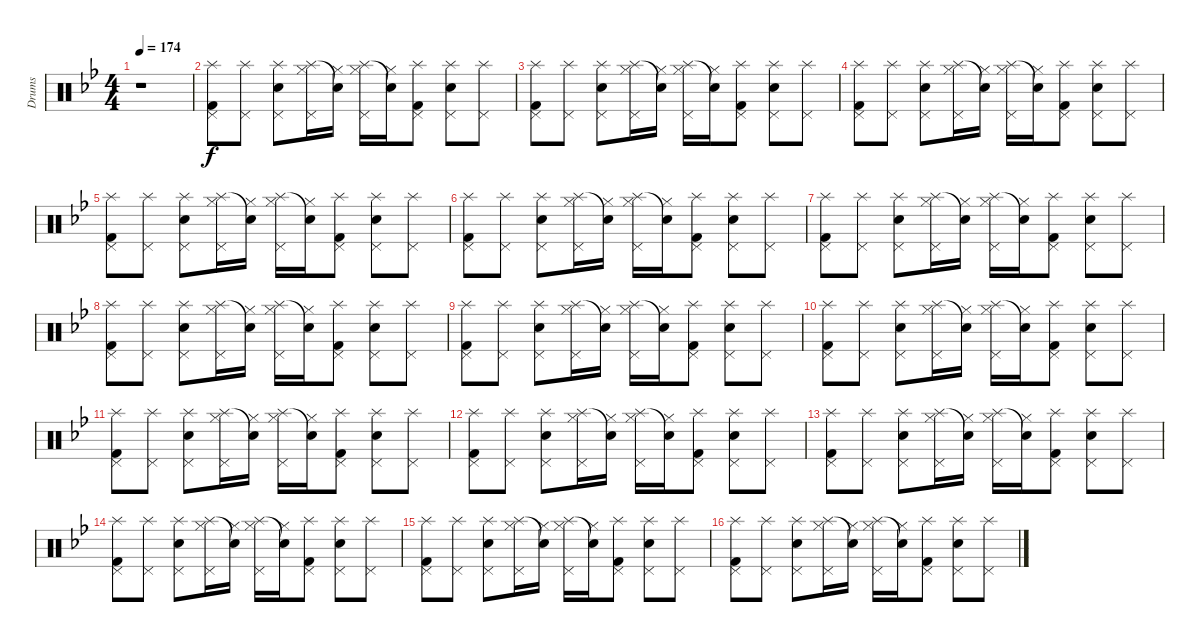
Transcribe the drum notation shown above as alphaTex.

\track ("Drums" "Drums") {instrument percussion}
\staff {score}
\articulation defaults
\ts (4 4)
\tempo 174
\clef neutral
\ks gminor
r.1{dy fff} |
("Splash (hit)" "Pedal Hi-Hat (hit)" "Kick (hit) 2").8{dy f} ("Splash (hit)" "Pedal Hi-Hat (hit)").8 ("Splash (hit)" "Pedal Hi-Hat (hit)" "Snare (hit) 2").8 ("Splash (hit)" "Pedal Hi-Hat (hit)" "Hi-Hat (closed)").16 ("Snare (hit)"{t} "Hi-Hat (closed)").16 ("Splash (hit)" "Pedal Hi-Hat (hit)" "Hi-Hat (closed)").16 ("Snare (hit)"{t} "Hi-Hat (closed)").16 ("Splash (hit)" "Pedal Hi-Hat (hit)" "Kick (hit) 2").8 ("Splash (hit)" "Pedal Hi-Hat (hit)" "Snare (hit) 2").8 ("Splash (hit)" "Pedal Hi-Hat (hit)").8 |
("Splash (hit)" "Pedal Hi-Hat (hit)" "Kick (hit) 2").8 ("Splash (hit)" "Pedal Hi-Hat (hit)").8 ("Splash (hit)" "Pedal Hi-Hat (hit)" "Snare (hit) 2").8 ("Splash (hit)" "Pedal Hi-Hat (hit)" "Hi-Hat (closed)").16 ("Snare (hit)"{t} "Hi-Hat (closed)").16 ("Splash (hit)" "Pedal Hi-Hat (hit)" "Hi-Hat (closed)").16 ("Snare (hit)"{t} "Hi-Hat (closed)").16 ("Splash (hit)" "Pedal Hi-Hat (hit)" "Kick (hit) 2").8 ("Splash (hit)" "Pedal Hi-Hat (hit)" "Snare (hit) 2").8 ("Splash (hit)" "Pedal Hi-Hat (hit)").8 |
("Splash (hit)" "Pedal Hi-Hat (hit)" "Kick (hit) 2").8 ("Splash (hit)" "Pedal Hi-Hat (hit)").8 ("Splash (hit)" "Pedal Hi-Hat (hit)" "Snare (hit) 2").8 ("Splash (hit)" "Pedal Hi-Hat (hit)" "Hi-Hat (closed)").16 ("Snare (hit)"{t} "Hi-Hat (closed)").16 ("Splash (hit)" "Pedal Hi-Hat (hit)" "Hi-Hat (closed)").16 ("Snare (hit)"{t} "Hi-Hat (closed)").16 ("Splash (hit)" "Pedal Hi-Hat (hit)" "Kick (hit) 2").8 ("Splash (hit)" "Pedal Hi-Hat (hit)" "Snare (hit) 2").8 ("Splash (hit)" "Pedal Hi-Hat (hit)").8 |
("Splash (hit)" "Pedal Hi-Hat (hit)" "Kick (hit) 2").8 ("Splash (hit)" "Pedal Hi-Hat (hit)").8 ("Splash (hit)" "Pedal Hi-Hat (hit)" "Snare (hit) 2").8 ("Splash (hit)" "Pedal Hi-Hat (hit)" "Hi-Hat (closed)").16 ("Snare (hit)"{t} "Hi-Hat (closed)").16 ("Splash (hit)" "Pedal Hi-Hat (hit)" "Hi-Hat (closed)").16 ("Snare (hit)"{t} "Hi-Hat (closed)").16 ("Splash (hit)" "Pedal Hi-Hat (hit)" "Kick (hit) 2").8 ("Splash (hit)" "Pedal Hi-Hat (hit)" "Snare (hit) 2").8 ("Splash (hit)" "Pedal Hi-Hat (hit)").8 |
("Splash (hit)" "Pedal Hi-Hat (hit)" "Kick (hit) 2").8 ("Splash (hit)" "Pedal Hi-Hat (hit)").8 ("Splash (hit)" "Pedal Hi-Hat (hit)" "Snare (hit) 2").8 ("Splash (hit)" "Pedal Hi-Hat (hit)" "Hi-Hat (closed)").16 ("Snare (hit)"{t} "Hi-Hat (closed)").16 ("Splash (hit)" "Pedal Hi-Hat (hit)" "Hi-Hat (closed)").16 ("Snare (hit)"{t} "Hi-Hat (closed)").16 ("Splash (hit)" "Pedal Hi-Hat (hit)" "Kick (hit) 2").8 ("Splash (hit)" "Pedal Hi-Hat (hit)" "Snare (hit) 2").8 ("Splash (hit)" "Pedal Hi-Hat (hit)").8 |
("Splash (hit)" "Pedal Hi-Hat (hit)" "Kick (hit) 2").8 ("Splash (hit)" "Pedal Hi-Hat (hit)").8 ("Splash (hit)" "Pedal Hi-Hat (hit)" "Snare (hit) 2").8 ("Splash (hit)" "Pedal Hi-Hat (hit)" "Hi-Hat (closed)").16 ("Snare (hit)"{t} "Hi-Hat (closed)").16 ("Splash (hit)" "Pedal Hi-Hat (hit)" "Hi-Hat (closed)").16 ("Snare (hit)"{t} "Hi-Hat (closed)").16 ("Splash (hit)" "Pedal Hi-Hat (hit)" "Kick (hit) 2").8 ("Splash (hit)" "Pedal Hi-Hat (hit)" "Snare (hit) 2").8 ("Splash (hit)" "Pedal Hi-Hat (hit)").8 |
("Splash (hit)" "Pedal Hi-Hat (hit)" "Kick (hit) 2").8 ("Splash (hit)" "Pedal Hi-Hat (hit)").8 ("Splash (hit)" "Pedal Hi-Hat (hit)" "Snare (hit) 2").8 ("Splash (hit)" "Pedal Hi-Hat (hit)" "Hi-Hat (closed)").16 ("Snare (hit)"{t} "Hi-Hat (closed)").16 ("Splash (hit)" "Pedal Hi-Hat (hit)" "Hi-Hat (closed)").16 ("Snare (hit)"{t} "Hi-Hat (closed)").16 ("Splash (hit)" "Pedal Hi-Hat (hit)" "Kick (hit) 2").8 ("Splash (hit)" "Pedal Hi-Hat (hit)" "Snare (hit) 2").8 ("Splash (hit)" "Pedal Hi-Hat (hit)").8 |
("Splash (hit)" "Pedal Hi-Hat (hit)" "Kick (hit) 2").8 ("Splash (hit)" "Pedal Hi-Hat (hit)").8 ("Splash (hit)" "Pedal Hi-Hat (hit)" "Snare (hit) 2").8 ("Splash (hit)" "Pedal Hi-Hat (hit)" "Hi-Hat (closed)").16 ("Snare (hit)"{t} "Hi-Hat (closed)").16 ("Splash (hit)" "Pedal Hi-Hat (hit)" "Hi-Hat (closed)").16 ("Snare (hit)"{t} "Hi-Hat (closed)").16 ("Splash (hit)" "Pedal Hi-Hat (hit)" "Kick (hit) 2").8 ("Splash (hit)" "Pedal Hi-Hat (hit)" "Snare (hit) 2").8 ("Splash (hit)" "Pedal Hi-Hat (hit)").8 |
("Splash (hit)" "Pedal Hi-Hat (hit)" "Kick (hit) 2").8 ("Splash (hit)" "Pedal Hi-Hat (hit)").8 ("Splash (hit)" "Pedal Hi-Hat (hit)" "Snare (hit) 2").8 ("Splash (hit)" "Pedal Hi-Hat (hit)" "Hi-Hat (closed)").16 ("Snare (hit)"{t} "Hi-Hat (closed)").16 ("Splash (hit)" "Pedal Hi-Hat (hit)" "Hi-Hat (closed)").16 ("Snare (hit)"{t} "Hi-Hat (closed)").16 ("Splash (hit)" "Pedal Hi-Hat (hit)" "Kick (hit) 2").8 ("Splash (hit)" "Pedal Hi-Hat (hit)" "Snare (hit) 2").8 ("Splash (hit)" "Pedal Hi-Hat (hit)").8 |
("Splash (hit)" "Pedal Hi-Hat (hit)" "Kick (hit) 2").8 ("Splash (hit)" "Pedal Hi-Hat (hit)").8 ("Splash (hit)" "Pedal Hi-Hat (hit)" "Snare (hit) 2").8 ("Splash (hit)" "Pedal Hi-Hat (hit)" "Hi-Hat (closed)").16 ("Snare (hit)"{t} "Hi-Hat (closed)").16 ("Splash (hit)" "Pedal Hi-Hat (hit)" "Hi-Hat (closed)").16 ("Snare (hit)"{t} "Hi-Hat (closed)").16 ("Splash (hit)" "Pedal Hi-Hat (hit)" "Kick (hit) 2").8 ("Splash (hit)" "Pedal Hi-Hat (hit)" "Snare (hit) 2").8 ("Splash (hit)" "Pedal Hi-Hat (hit)").8 |
("Splash (hit)" "Pedal Hi-Hat (hit)" "Kick (hit) 2").8 ("Splash (hit)" "Pedal Hi-Hat (hit)").8 ("Splash (hit)" "Pedal Hi-Hat (hit)" "Snare (hit) 2").8 ("Splash (hit)" "Pedal Hi-Hat (hit)" "Hi-Hat (closed)").16 ("Snare (hit)"{t} "Hi-Hat (closed)").16 ("Splash (hit)" "Pedal Hi-Hat (hit)" "Hi-Hat (closed)").16 ("Snare (hit)"{t} "Hi-Hat (closed)").16 ("Splash (hit)" "Pedal Hi-Hat (hit)" "Kick (hit) 2").8 ("Splash (hit)" "Pedal Hi-Hat (hit)" "Snare (hit) 2").8 ("Splash (hit)" "Pedal Hi-Hat (hit)").8 |
("Splash (hit)" "Pedal Hi-Hat (hit)" "Kick (hit) 2").8 ("Splash (hit)" "Pedal Hi-Hat (hit)").8 ("Splash (hit)" "Pedal Hi-Hat (hit)" "Snare (hit) 2").8 ("Splash (hit)" "Pedal Hi-Hat (hit)" "Hi-Hat (closed)").16 ("Snare (hit)"{t} "Hi-Hat (closed)").16 ("Splash (hit)" "Pedal Hi-Hat (hit)" "Hi-Hat (closed)").16 ("Snare (hit)"{t} "Hi-Hat (closed)").16 ("Splash (hit)" "Pedal Hi-Hat (hit)" "Kick (hit) 2").8 ("Splash (hit)" "Pedal Hi-Hat (hit)" "Snare (hit) 2").8 ("Splash (hit)" "Pedal Hi-Hat (hit)").8 |
("Splash (hit)" "Pedal Hi-Hat (hit)" "Kick (hit) 2").8 ("Splash (hit)" "Pedal Hi-Hat (hit)").8 ("Splash (hit)" "Pedal Hi-Hat (hit)" "Snare (hit) 2").8 ("Splash (hit)" "Pedal Hi-Hat (hit)" "Hi-Hat (closed)").16 ("Snare (hit)"{t} "Hi-Hat (closed)").16 ("Splash (hit)" "Pedal Hi-Hat (hit)" "Hi-Hat (closed)").16 ("Snare (hit)"{t} "Hi-Hat (closed)").16 ("Splash (hit)" "Pedal Hi-Hat (hit)" "Kick (hit) 2").8 ("Splash (hit)" "Pedal Hi-Hat (hit)" "Snare (hit) 2").8 ("Splash (hit)" "Pedal Hi-Hat (hit)").8 |
("Splash (hit)" "Pedal Hi-Hat (hit)" "Kick (hit) 2").8 ("Splash (hit)" "Pedal Hi-Hat (hit)").8 ("Splash (hit)" "Pedal Hi-Hat (hit)" "Snare (hit) 2").8 ("Splash (hit)" "Pedal Hi-Hat (hit)" "Hi-Hat (closed)").16 ("Snare (hit)"{t} "Hi-Hat (closed)").16 ("Splash (hit)" "Pedal Hi-Hat (hit)" "Hi-Hat (closed)").16 ("Snare (hit)"{t} "Hi-Hat (closed)").16 ("Splash (hit)" "Pedal Hi-Hat (hit)" "Kick (hit) 2").8 ("Splash (hit)" "Pedal Hi-Hat (hit)" "Snare (hit) 2").8 ("Splash (hit)" "Pedal Hi-Hat (hit)").8 |
("Splash (hit)" "Pedal Hi-Hat (hit)" "Kick (hit) 2").8 ("Splash (hit)" "Pedal Hi-Hat (hit)").8 ("Splash (hit)" "Pedal Hi-Hat (hit)" "Snare (hit) 2").8 ("Splash (hit)" "Pedal Hi-Hat (hit)" "Hi-Hat (closed)").16 ("Snare (hit)"{t} "Hi-Hat (closed)").16 ("Splash (hit)" "Pedal Hi-Hat (hit)" "Hi-Hat (closed)").16 ("Snare (hit)"{t} "Hi-Hat (closed)").16 ("Splash (hit)" "Pedal Hi-Hat (hit)" "Kick (hit) 2").8 ("Splash (hit)" "Pedal Hi-Hat (hit)" "Snare (hit) 2").8 ("Splash (hit)" "Pedal Hi-Hat (hit)").8
